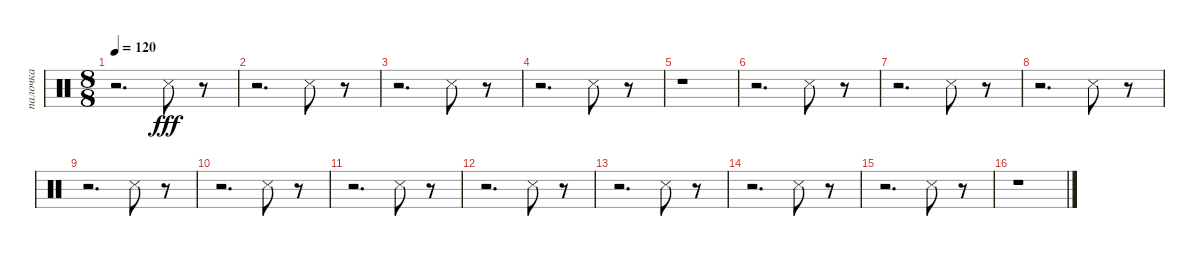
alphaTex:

\track ("палочка" "палочка") {instrument percussion}
\staff {score}
\articulation defaults
\ts (8 8)
\tempo 120
\clef neutral
\ks c
r.2{d dy fff} "Snare (side stick) 3".8 r.8 |
r.2{d} "Snare (side stick) 3".8 r.8 |
r.2{d} "Snare (side stick) 3".8 r.8 |
r.2{d} "Snare (side stick) 3".8 r.8 |
r.1 |
r.2{d} "Snare (side stick) 3".8 r.8 |
r.2{d} "Snare (side stick) 3".8 r.8 |
r.2{d} "Snare (side stick) 3".8 r.8 |
r.2{d} "Snare (side stick) 3".8 r.8 |
r.2{d} "Snare (side stick) 3".8 r.8 |
r.2{d} "Snare (side stick) 3".8 r.8 |
r.2{d} "Snare (side stick) 3".8 r.8 |
r.2{d} "Snare (side stick) 3".8 r.8 |
r.2{d} "Snare (side stick) 3".8 r.8 |
r.2{d} "Snare (side stick) 3".8 r.8 |
r.1
